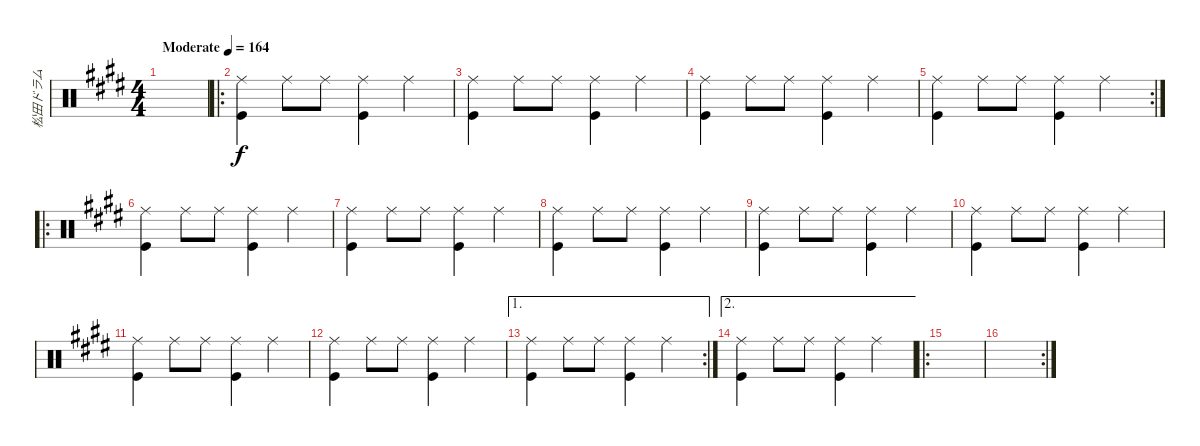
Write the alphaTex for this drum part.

\track ("松田ドラム" "松田ドラム") {instrument percussion}
\staff {score}
\articulation defaults
\ts (4 4)
\tempo (164 "Moderate")
\clef neutral
\ks e
|
\ro
("Ride (middle)" "Kick (hit)").4 "Ride (middle)".8 "Ride (middle)".8 ("Ride (middle)" "Kick (hit)").4 "Ride (middle)".4 |
("Ride (middle)" "Kick (hit)").4 "Ride (middle)".8 "Ride (middle)".8 ("Ride (middle)" "Kick (hit)").4 "Ride (middle)".4 |
("Ride (middle)" "Kick (hit)").4 "Ride (middle)".8 "Ride (middle)".8 ("Ride (middle)" "Kick (hit)").4 "Ride (middle)".4 |
\rc 2
("Ride (middle)" "Kick (hit)").4 "Ride (middle)".8 "Ride (middle)".8 ("Ride (middle)" "Kick (hit)").4 "Ride (middle)".4 |
\ro
("Ride (middle)" "Kick (hit)").4 "Ride (middle)".8 "Ride (middle)".8 ("Ride (middle)" "Kick (hit)").4 "Ride (middle)".4 |
("Ride (middle)" "Kick (hit)").4 "Ride (middle)".8 "Ride (middle)".8 ("Ride (middle)" "Kick (hit)").4 "Ride (middle)".4 |
("Ride (middle)" "Kick (hit)").4 "Ride (middle)".8 "Ride (middle)".8 ("Ride (middle)" "Kick (hit)").4 "Ride (middle)".4 |
("Ride (middle)" "Kick (hit)").4 "Ride (middle)".8 "Ride (middle)".8 ("Ride (middle)" "Kick (hit)").4 "Ride (middle)".4 |
("Ride (middle)" "Kick (hit)").4 "Ride (middle)".8 "Ride (middle)".8 ("Ride (middle)" "Kick (hit)").4 "Ride (middle)".4 |
("Ride (middle)" "Kick (hit)").4 "Ride (middle)".8 "Ride (middle)".8 ("Ride (middle)" "Kick (hit)").4 "Ride (middle)".4 |
("Ride (middle)" "Kick (hit)").4 "Ride (middle)".8 "Ride (middle)".8 ("Ride (middle)" "Kick (hit)").4 "Ride (middle)".4 |
\ae 1
\rc 2
("Ride (middle)" "Kick (hit)").4 "Ride (middle)".8 "Ride (middle)".8 ("Ride (middle)" "Kick (hit)").4 "Ride (middle)".4 |
\ae 2
("Ride (middle)" "Kick (hit)").4 "Ride (middle)".8 "Ride (middle)".8 ("Ride (middle)" "Kick (hit)").4 "Ride (middle)".4 |
\ro
|
\rc 2
